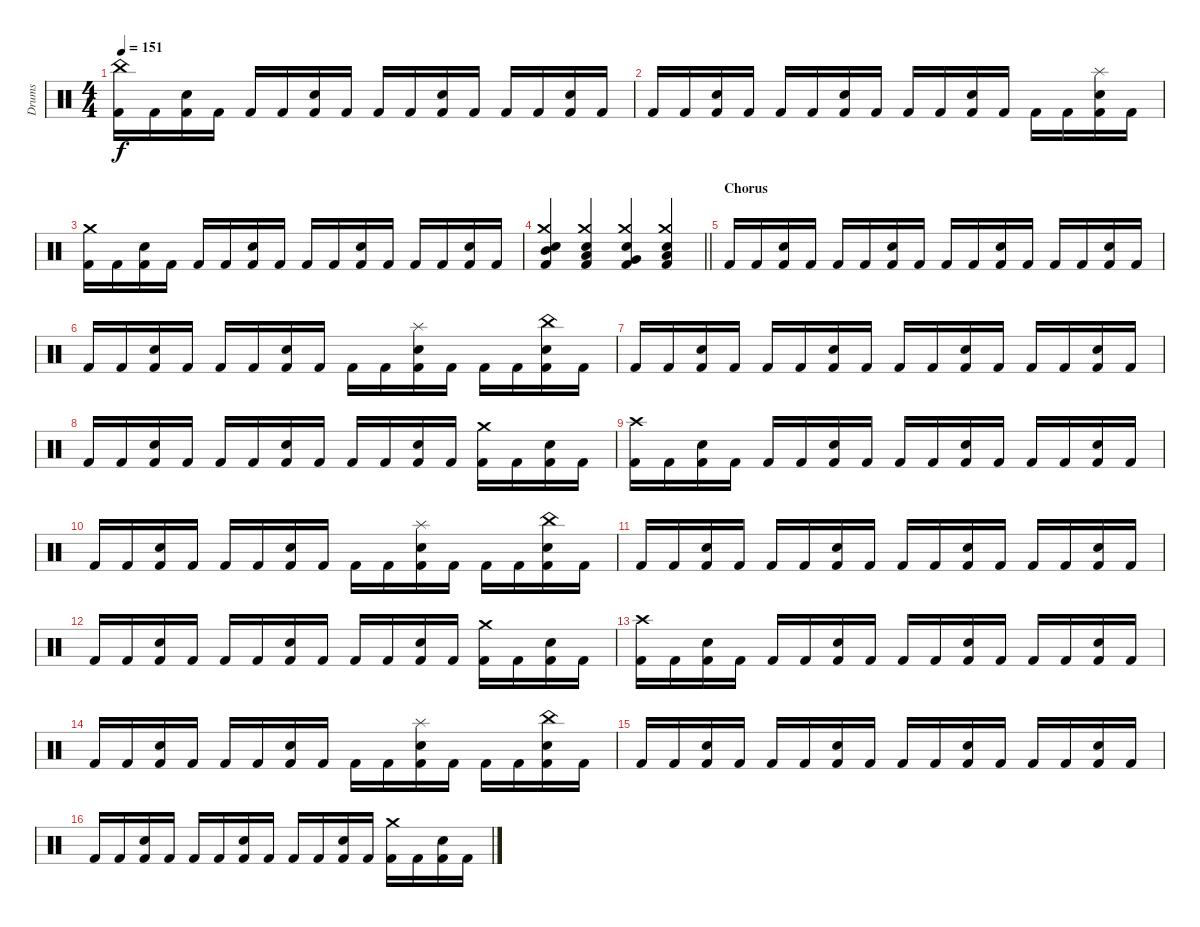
\track ("Drums" "Drums") {instrument percussion}
\staff {score}
\articulation defaults
\ts (4 4)
\tempo 151
\clef neutral
\ks c
("China (hit)" "Kick (hit) 2").16{dy f} "Kick (hit) 2".16 ("Snare (hit) 2" "Kick (hit) 2").16 "Kick (hit) 2".16 "Kick (hit) 2".16 "Kick (hit) 2".16 ("Snare (hit) 2" "Kick (hit) 2").16 "Kick (hit) 2".16 "Kick (hit) 2".16 "Kick (hit) 2".16 ("Snare (hit) 2" "Kick (hit) 2").16 "Kick (hit) 2".16 "Kick (hit) 2".16 "Kick (hit) 2".16 ("Snare (hit) 2" "Kick (hit) 2").16 "Kick (hit) 2".16 |
"Kick (hit) 2".16 "Kick (hit) 2".16 ("Snare (hit) 2" "Kick (hit) 2").16 "Kick (hit) 2".16 "Kick (hit) 2".16 "Kick (hit) 2".16 ("Snare (hit) 2" "Kick (hit) 2").16 "Kick (hit) 2".16 "Kick (hit) 2".16 "Kick (hit) 2".16 ("Snare (hit) 2" "Kick (hit) 2").16 "Kick (hit) 2".16 "Kick (hit) 2".16 "Kick (hit) 2".16 ("Splash (hit)" "Snare (hit) 2" "Kick (hit) 2").16 "Kick (hit) 2".16 |
("Crash medium (hit)" "Kick (hit) 2").16 "Kick (hit) 2".16 ("Snare (hit) 2" "Kick (hit) 2").16 "Kick (hit) 2".16 "Kick (hit) 2".16 "Kick (hit) 2".16 ("Snare (hit) 2" "Kick (hit) 2").16 "Kick (hit) 2".16 "Kick (hit) 2".16 "Kick (hit) 2".16 ("Snare (hit) 2" "Kick (hit) 2").16 "Kick (hit) 2".16 "Kick (hit) 2".16 "Kick (hit) 2".16 ("Snare (hit) 2" "Kick (hit) 2").16 "Kick (hit) 2".16 |
\barLineRight lightlight
("Crash medium (hit)" "Mid Tom (hit)" "Snare (hit) 2" "Kick (hit) 2").4 ("Crash medium (hit)" "Low Tom (hit)" "Snare (hit) 2" "Kick (hit) 2").4 ("Crash medium (hit)" "Very Low Tom (hit)" "Snare (hit) 2" "Kick (hit) 2").4 ("Crash medium (hit)" "Low Floor Tom (hit)" "Snare (hit) 2" "Kick (hit) 2").4 |
\section ("" "Chorus")
"Kick (hit) 2".16 "Kick (hit) 2".16 ("Snare (hit) 2" "Kick (hit) 2").16 "Kick (hit) 2".16 "Kick (hit) 2".16 "Kick (hit) 2".16 ("Snare (hit) 2" "Kick (hit) 2").16 "Kick (hit) 2".16 "Kick (hit) 2".16 "Kick (hit) 2".16 ("Snare (hit) 2" "Kick (hit) 2").16 "Kick (hit) 2".16 "Kick (hit) 2".16 "Kick (hit) 2".16 ("Snare (hit) 2" "Kick (hit) 2").16 "Kick (hit) 2".16 |
"Kick (hit) 2".16 "Kick (hit) 2".16 ("Snare (hit) 2" "Kick (hit) 2").16 "Kick (hit) 2".16 "Kick (hit) 2".16 "Kick (hit) 2".16 ("Snare (hit) 2" "Kick (hit) 2").16 "Kick (hit) 2".16 "Kick (hit) 2".16 "Kick (hit) 2".16 ("Splash (hit)" "Snare (hit) 2" "Kick (hit) 2").16 "Kick (hit) 2".16 "Kick (hit) 2".16 "Kick (hit) 2".16 ("China (hit)" "Snare (hit) 2" "Kick (hit) 2").16 "Kick (hit) 2".16 |
"Kick (hit) 2".16 "Kick (hit) 2".16 ("Snare (hit) 2" "Kick (hit) 2").16 "Kick (hit) 2".16 "Kick (hit) 2".16 "Kick (hit) 2".16 ("Snare (hit) 2" "Kick (hit) 2").16 "Kick (hit) 2".16 "Kick (hit) 2".16 "Kick (hit) 2".16 ("Snare (hit) 2" "Kick (hit) 2").16 "Kick (hit) 2".16 "Kick (hit) 2".16 "Kick (hit) 2".16 ("Snare (hit) 2" "Kick (hit) 2").16 "Kick (hit) 2".16 |
"Kick (hit) 2".16 "Kick (hit) 2".16 ("Snare (hit) 2" "Kick (hit) 2").16 "Kick (hit) 2".16 "Kick (hit) 2".16 "Kick (hit) 2".16 ("Snare (hit) 2" "Kick (hit) 2").16 "Kick (hit) 2".16 "Kick (hit) 2".16 "Kick (hit) 2".16 ("Snare (hit) 2" "Kick (hit) 2").16 "Kick (hit) 2".16 ("Crash medium (hit)" "Kick (hit) 2").16 "Kick (hit) 2".16 ("Snare (hit) 2" "Kick (hit) 2").16 "Kick (hit) 2".16 |
("Crash high (hit)" "Kick (hit) 2").16 "Kick (hit) 2".16 ("Snare (hit) 2" "Kick (hit) 2").16 "Kick (hit) 2".16 "Kick (hit) 2".16 "Kick (hit) 2".16 ("Snare (hit) 2" "Kick (hit) 2").16 "Kick (hit) 2".16 "Kick (hit) 2".16 "Kick (hit) 2".16 ("Snare (hit) 2" "Kick (hit) 2").16 "Kick (hit) 2".16 "Kick (hit) 2".16 "Kick (hit) 2".16 ("Snare (hit) 2" "Kick (hit) 2").16 "Kick (hit) 2".16 |
"Kick (hit) 2".16 "Kick (hit) 2".16 ("Snare (hit) 2" "Kick (hit) 2").16 "Kick (hit) 2".16 "Kick (hit) 2".16 "Kick (hit) 2".16 ("Snare (hit) 2" "Kick (hit) 2").16 "Kick (hit) 2".16 "Kick (hit) 2".16 "Kick (hit) 2".16 ("Splash (hit)" "Snare (hit) 2" "Kick (hit) 2").16 "Kick (hit) 2".16 "Kick (hit) 2".16 "Kick (hit) 2".16 ("China (hit)" "Snare (hit) 2" "Kick (hit) 2").16 "Kick (hit) 2".16 |
"Kick (hit) 2".16 "Kick (hit) 2".16 ("Snare (hit) 2" "Kick (hit) 2").16 "Kick (hit) 2".16 "Kick (hit) 2".16 "Kick (hit) 2".16 ("Snare (hit) 2" "Kick (hit) 2").16 "Kick (hit) 2".16 "Kick (hit) 2".16 "Kick (hit) 2".16 ("Snare (hit) 2" "Kick (hit) 2").16 "Kick (hit) 2".16 "Kick (hit) 2".16 "Kick (hit) 2".16 ("Snare (hit) 2" "Kick (hit) 2").16 "Kick (hit) 2".16 |
"Kick (hit) 2".16 "Kick (hit) 2".16 ("Snare (hit) 2" "Kick (hit) 2").16 "Kick (hit) 2".16 "Kick (hit) 2".16 "Kick (hit) 2".16 ("Snare (hit) 2" "Kick (hit) 2").16 "Kick (hit) 2".16 "Kick (hit) 2".16 "Kick (hit) 2".16 ("Snare (hit) 2" "Kick (hit) 2").16 "Kick (hit) 2".16 ("Crash medium (hit)" "Kick (hit) 2").16 "Kick (hit) 2".16 ("Snare (hit) 2" "Kick (hit) 2").16 "Kick (hit) 2".16 |
("Crash high (hit)" "Kick (hit) 2").16 "Kick (hit) 2".16 ("Snare (hit) 2" "Kick (hit) 2").16 "Kick (hit) 2".16 "Kick (hit) 2".16 "Kick (hit) 2".16 ("Snare (hit) 2" "Kick (hit) 2").16 "Kick (hit) 2".16 "Kick (hit) 2".16 "Kick (hit) 2".16 ("Snare (hit) 2" "Kick (hit) 2").16 "Kick (hit) 2".16 "Kick (hit) 2".16 "Kick (hit) 2".16 ("Snare (hit) 2" "Kick (hit) 2").16 "Kick (hit) 2".16 |
"Kick (hit) 2".16 "Kick (hit) 2".16 ("Snare (hit) 2" "Kick (hit) 2").16 "Kick (hit) 2".16 "Kick (hit) 2".16 "Kick (hit) 2".16 ("Snare (hit) 2" "Kick (hit) 2").16 "Kick (hit) 2".16 "Kick (hit) 2".16 "Kick (hit) 2".16 ("Splash (hit)" "Snare (hit) 2" "Kick (hit) 2").16 "Kick (hit) 2".16 "Kick (hit) 2".16 "Kick (hit) 2".16 ("China (hit)" "Snare (hit) 2" "Kick (hit) 2").16 "Kick (hit) 2".16 |
"Kick (hit) 2".16 "Kick (hit) 2".16 ("Snare (hit) 2" "Kick (hit) 2").16 "Kick (hit) 2".16 "Kick (hit) 2".16 "Kick (hit) 2".16 ("Snare (hit) 2" "Kick (hit) 2").16 "Kick (hit) 2".16 "Kick (hit) 2".16 "Kick (hit) 2".16 ("Snare (hit) 2" "Kick (hit) 2").16 "Kick (hit) 2".16 "Kick (hit) 2".16 "Kick (hit) 2".16 ("Snare (hit) 2" "Kick (hit) 2").16 "Kick (hit) 2".16 |
"Kick (hit) 2".16 "Kick (hit) 2".16 ("Snare (hit) 2" "Kick (hit) 2").16 "Kick (hit) 2".16 "Kick (hit) 2".16 "Kick (hit) 2".16 ("Snare (hit) 2" "Kick (hit) 2").16 "Kick (hit) 2".16 "Kick (hit) 2".16 "Kick (hit) 2".16 ("Snare (hit) 2" "Kick (hit) 2").16 "Kick (hit) 2".16 ("Crash medium (hit)" "Kick (hit) 2").16 "Kick (hit) 2".16 ("Snare (hit) 2" "Kick (hit) 2").16 "Kick (hit) 2".16
